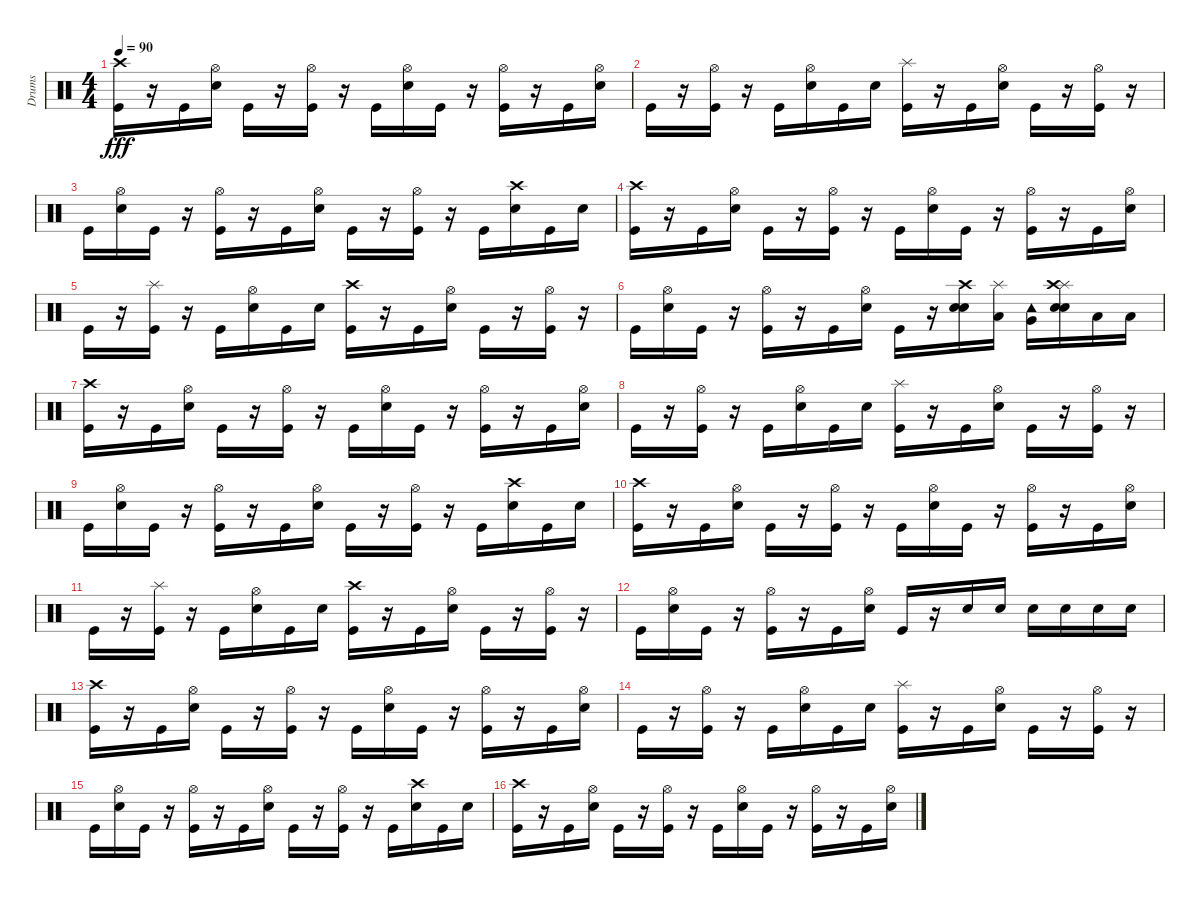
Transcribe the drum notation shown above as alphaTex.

\track ("Drums" "Drums") {instrument percussion}
\staff {score}
\articulation defaults
\ts (4 4)
\tempo 90
\clef neutral
\ks c
("Kick (hit)" "Crash high (hit)").16{dy fff} r.16 "Kick (hit)".16 ("Hi-Hat (open)" "Snare (hit) 2").16 "Kick (hit)".16 r.16 ("Hi-Hat (open)" "Kick (hit)").16 r.16 "Kick (hit)".16 ("Hi-Hat (open)" "Snare (hit) 2").16 "Kick (hit)".16 r.16 ("Hi-Hat (open)" "Kick (hit)").16 r.16 "Kick (hit)".16 ("Hi-Hat (open)" "Snare (hit) 2").16 |
"Kick (hit)".16 r.16 ("Hi-Hat (open)" "Kick (hit)").16 r.16 "Kick (hit)".16 ("Hi-Hat (open)" "Snare (hit) 2").16 "Kick (hit)".16 "Snare (hit) 2".16 ("Splash (hit)" "Kick (hit)").16 r.16 "Kick (hit)".16 ("Hi-Hat (open)" "Snare (hit) 2").16 "Kick (hit)".16 r.16 ("Hi-Hat (open)" "Kick (hit)").16 r.16 |
"Kick (hit)".16 ("Hi-Hat (open)" "Snare (hit) 2").16 "Kick (hit)".16 r.16 ("Hi-Hat (open)" "Kick (hit)").16 r.16 "Kick (hit)".16 ("Hi-Hat (open)" "Snare (hit) 2").16 "Kick (hit)".16 r.16 ("Hi-Hat (open)" "Kick (hit)").16 r.16 "Kick (hit)".16 ("Crash high (hit)" "Snare (hit) 2").16 "Kick (hit)".16 "Snare (hit) 2".16 |
("Kick (hit)" "Crash high (hit)").16 r.16 "Kick (hit)".16 ("Hi-Hat (open)" "Snare (hit) 2").16 "Kick (hit)".16 r.16 ("Hi-Hat (open)" "Kick (hit)").16 r.16 "Kick (hit)".16 ("Hi-Hat (open)" "Snare (hit) 2").16 "Kick (hit)".16 r.16 ("Hi-Hat (open)" "Kick (hit)").16 r.16 "Kick (hit)".16 ("Hi-Hat (open)" "Snare (hit) 2").16 |
"Kick (hit)".16 r.16 ("Splash (hit)" "Kick (hit)").16 r.16 "Kick (hit)".16 ("Hi-Hat (open)" "Snare (hit) 2").16 "Kick (hit)".16 "Snare (hit) 2".16 ("Crash high (hit)" "Kick (hit)").16 r.16 "Kick (hit)".16 ("Hi-Hat (open)" "Snare (hit) 2").16 "Kick (hit)".16 r.16 ("Hi-Hat (open)" "Kick (hit)").16 r.16 |
"Kick (hit)".16 ("Hi-Hat (open)" "Snare (hit) 2").16 "Kick (hit)".16 r.16 ("Hi-Hat (open)" "Kick (hit)").16 r.16 "Kick (hit)".16 ("Hi-Hat (open)" "Snare (hit) 2").16 "Kick (hit)".16 r.16 ("Snare (hit) 2" "Crash high (hit)" "Snare (hit) 2").16 ("Splash (hit)" "Low Tom (hit)").16 ("Tambourine (hit)" "Very Low Tom (hit)").16 ("Splash (hit)" "Crash high (hit)" "Snare (hit) 2" "Snare (hit) 2").16 "Low Floor Tom (hit)".16 "Low Floor Tom (hit)".16 |
("Kick (hit)" "Crash high (hit)").16 r.16 "Kick (hit)".16 ("Hi-Hat (open)" "Snare (hit) 2").16 "Kick (hit)".16 r.16 ("Hi-Hat (open)" "Kick (hit)").16 r.16 "Kick (hit)".16 ("Hi-Hat (open)" "Snare (hit) 2").16 "Kick (hit)".16 r.16 ("Hi-Hat (open)" "Kick (hit)").16 r.16 "Kick (hit)".16 ("Hi-Hat (open)" "Snare (hit) 2").16 |
"Kick (hit)".16 r.16 ("Hi-Hat (open)" "Kick (hit)").16 r.16 "Kick (hit)".16 ("Hi-Hat (open)" "Snare (hit) 2").16 "Kick (hit)".16 "Snare (hit) 2".16 ("Splash (hit)" "Kick (hit)").16 r.16 "Kick (hit)".16 ("Hi-Hat (open)" "Snare (hit) 2").16 "Kick (hit)".16 r.16 ("Hi-Hat (open)" "Kick (hit)").16 r.16 |
"Kick (hit)".16 ("Hi-Hat (open)" "Snare (hit) 2").16 "Kick (hit)".16 r.16 ("Hi-Hat (open)" "Kick (hit)").16 r.16 "Kick (hit)".16 ("Hi-Hat (open)" "Snare (hit) 2").16 "Kick (hit)".16 r.16 ("Hi-Hat (open)" "Kick (hit)").16 r.16 "Kick (hit)".16 ("Crash high (hit)" "Snare (hit) 2").16 "Kick (hit)".16 "Snare (hit) 2".16 |
("Kick (hit)" "Crash high (hit)").16 r.16 "Kick (hit)".16 ("Hi-Hat (open)" "Snare (hit) 2").16 "Kick (hit)".16 r.16 ("Hi-Hat (open)" "Kick (hit)").16 r.16 "Kick (hit)".16 ("Hi-Hat (open)" "Snare (hit) 2").16 "Kick (hit)".16 r.16 ("Hi-Hat (open)" "Kick (hit)").16 r.16 "Kick (hit)".16 ("Hi-Hat (open)" "Snare (hit) 2").16 |
"Kick (hit)".16 r.16 ("Splash (hit)" "Kick (hit)").16 r.16 "Kick (hit)".16 ("Hi-Hat (open)" "Snare (hit) 2").16 "Kick (hit)".16 "Snare (hit) 2".16 ("Crash high (hit)" "Kick (hit)").16 r.16 "Kick (hit)".16 ("Hi-Hat (open)" "Snare (hit) 2").16 "Kick (hit)".16 r.16 ("Hi-Hat (open)" "Kick (hit)").16 r.16 |
"Kick (hit)".16 ("Hi-Hat (open)" "Snare (hit) 2").16 "Kick (hit)".16 r.16 ("Hi-Hat (open)" "Kick (hit)").16 r.16 "Kick (hit)".16 ("Hi-Hat (open)" "Snare (hit) 2").16 "Kick (hit)".16 r.16 "Snare (hit) 2".16 "Snare (hit) 2".16 "Snare (hit) 2".16 "Snare (hit) 2".16 "Snare (hit) 2".16 "Snare (hit) 2".16 |
("Kick (hit)" "Crash high (hit)").16 r.16 "Kick (hit)".16 ("Hi-Hat (open)" "Snare (hit) 2").16 "Kick (hit)".16 r.16 ("Hi-Hat (open)" "Kick (hit)").16 r.16 "Kick (hit)".16 ("Hi-Hat (open)" "Snare (hit) 2").16 "Kick (hit)".16 r.16 ("Hi-Hat (open)" "Kick (hit)").16 r.16 "Kick (hit)".16 ("Hi-Hat (open)" "Snare (hit) 2").16 |
"Kick (hit)".16 r.16 ("Hi-Hat (open)" "Kick (hit)").16 r.16 "Kick (hit)".16 ("Hi-Hat (open)" "Snare (hit) 2").16 "Kick (hit)".16 "Snare (hit) 2".16 ("Splash (hit)" "Kick (hit)").16 r.16 "Kick (hit)".16 ("Hi-Hat (open)" "Snare (hit) 2").16 "Kick (hit)".16 r.16 ("Hi-Hat (open)" "Kick (hit)").16 r.16 |
"Kick (hit)".16 ("Hi-Hat (open)" "Snare (hit) 2").16 "Kick (hit)".16 r.16 ("Hi-Hat (open)" "Kick (hit)").16 r.16 "Kick (hit)".16 ("Hi-Hat (open)" "Snare (hit) 2").16 "Kick (hit)".16 r.16 ("Hi-Hat (open)" "Kick (hit)").16 r.16 "Kick (hit)".16 ("Crash high (hit)" "Snare (hit) 2").16 "Kick (hit)".16 "Snare (hit) 2".16 |
("Kick (hit)" "Crash high (hit)").16 r.16 "Kick (hit)".16 ("Hi-Hat (open)" "Snare (hit) 2").16 "Kick (hit)".16 r.16 ("Hi-Hat (open)" "Kick (hit)").16 r.16 "Kick (hit)".16 ("Hi-Hat (open)" "Snare (hit) 2").16 "Kick (hit)".16 r.16 ("Hi-Hat (open)" "Kick (hit)").16 r.16 "Kick (hit)".16 ("Hi-Hat (open)" "Snare (hit) 2").16
